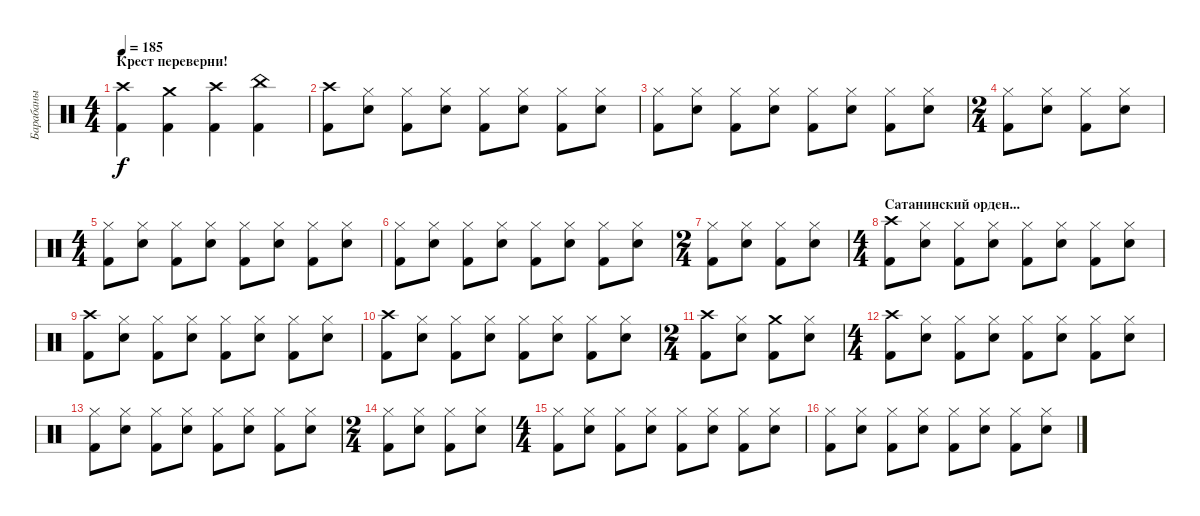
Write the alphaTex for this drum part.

\track ("Барабаны" "Барабаны") {instrument percussion}
\staff {score}
\articulation defaults
\ts (4 4)
\section ("" "Крест переверни!")
\tempo 185
\clef neutral
\ks c
("Crash high (hit)" "Kick (hit) 2").4{dy f} ("Crash medium (hit)" "Kick (hit) 2").4 ("Crash high (hit)" "Kick (hit) 2").4 ("China (hit)" "Kick (hit) 2").4 |
("Crash high (hit)" "Kick (hit) 2").8 ("Hi-Hat (closed)" "Snare (hit) 2").8 ("Hi-Hat (closed)" "Kick (hit) 2").8 ("Hi-Hat (closed)" "Snare (hit) 2").8 ("Hi-Hat (closed)" "Kick (hit) 2").8 ("Hi-Hat (closed)" "Snare (hit) 2").8 ("Hi-Hat (closed)" "Kick (hit) 2").8 ("Hi-Hat (closed)" "Snare (hit) 2").8 |
("Hi-Hat (closed)" "Kick (hit) 2").8 ("Hi-Hat (closed)" "Snare (hit) 2").8 ("Hi-Hat (closed)" "Kick (hit) 2").8 ("Hi-Hat (closed)" "Snare (hit) 2").8 ("Hi-Hat (closed)" "Kick (hit) 2").8 ("Hi-Hat (closed)" "Snare (hit) 2").8 ("Hi-Hat (closed)" "Kick (hit) 2").8 ("Hi-Hat (closed)" "Snare (hit) 2").8 |
\ts (2 4)
("Hi-Hat (closed)" "Kick (hit) 2").8 ("Hi-Hat (closed)" "Snare (hit) 2").8 ("Hi-Hat (closed)" "Kick (hit) 2").8 ("Hi-Hat (closed)" "Snare (hit) 2").8 |
\ts (4 4)
("Hi-Hat (closed)" "Kick (hit) 2").8 ("Hi-Hat (closed)" "Snare (hit) 2").8 ("Hi-Hat (closed)" "Kick (hit) 2").8 ("Hi-Hat (closed)" "Snare (hit) 2").8 ("Hi-Hat (closed)" "Kick (hit) 2").8 ("Hi-Hat (closed)" "Snare (hit) 2").8 ("Hi-Hat (closed)" "Kick (hit) 2").8 ("Hi-Hat (closed)" "Snare (hit) 2").8 |
("Hi-Hat (closed)" "Kick (hit) 2").8 ("Hi-Hat (closed)" "Snare (hit) 2").8 ("Hi-Hat (closed)" "Kick (hit) 2").8 ("Hi-Hat (closed)" "Snare (hit) 2").8 ("Hi-Hat (closed)" "Kick (hit) 2").8 ("Hi-Hat (closed)" "Snare (hit) 2").8 ("Hi-Hat (closed)" "Kick (hit) 2").8 ("Hi-Hat (closed)" "Snare (hit) 2").8 |
\ts (2 4)
("Hi-Hat (closed)" "Kick (hit) 2").8 ("Hi-Hat (closed)" "Snare (hit) 2").8 ("Hi-Hat (closed)" "Kick (hit) 2").8 ("Hi-Hat (closed)" "Snare (hit) 2").8 |
\ts (4 4)
\section ("" "Сатанинский орден...")
("Crash high (hit)" "Kick (hit) 2").8 ("Hi-Hat (closed)" "Snare (hit) 2").8 ("Hi-Hat (closed)" "Kick (hit) 2").8 ("Hi-Hat (closed)" "Snare (hit) 2").8 ("Hi-Hat (closed)" "Kick (hit) 2").8 ("Hi-Hat (closed)" "Snare (hit) 2").8 ("Hi-Hat (closed)" "Kick (hit) 2").8 ("Hi-Hat (closed)" "Snare (hit) 2").8 |
("Crash high (hit)" "Kick (hit) 2").8 ("Hi-Hat (closed)" "Snare (hit) 2").8 ("Hi-Hat (closed)" "Kick (hit) 2").8 ("Hi-Hat (closed)" "Snare (hit) 2").8 ("Hi-Hat (closed)" "Kick (hit) 2").8 ("Hi-Hat (closed)" "Snare (hit) 2").8 ("Hi-Hat (closed)" "Kick (hit) 2").8 ("Hi-Hat (closed)" "Snare (hit) 2").8 |
("Crash high (hit)" "Kick (hit) 2").8 ("Hi-Hat (closed)" "Snare (hit) 2").8 ("Hi-Hat (closed)" "Kick (hit) 2").8 ("Hi-Hat (closed)" "Snare (hit) 2").8 ("Hi-Hat (closed)" "Kick (hit) 2").8 ("Hi-Hat (closed)" "Snare (hit) 2").8 ("Hi-Hat (closed)" "Kick (hit) 2").8 ("Hi-Hat (closed)" "Snare (hit) 2").8 |
\ts (2 4)
("Crash high (hit)" "Kick (hit) 2").8 ("Hi-Hat (closed)" "Snare (hit) 2").8 ("Crash medium (hit)" "Kick (hit) 2").8 ("Hi-Hat (closed)" "Snare (hit) 2").8 |
\ts (4 4)
("Crash high (hit)" "Kick (hit) 2").8 ("Hi-Hat (closed)" "Snare (hit) 2").8 ("Hi-Hat (closed)" "Kick (hit) 2").8 ("Hi-Hat (closed)" "Snare (hit) 2").8 ("Hi-Hat (closed)" "Kick (hit) 2").8 ("Hi-Hat (closed)" "Snare (hit) 2").8 ("Hi-Hat (closed)" "Kick (hit) 2").8 ("Hi-Hat (closed)" "Snare (hit) 2").8 |
("Hi-Hat (closed)" "Kick (hit) 2").8 ("Hi-Hat (closed)" "Snare (hit) 2").8 ("Hi-Hat (closed)" "Kick (hit) 2").8 ("Hi-Hat (closed)" "Snare (hit) 2").8 ("Hi-Hat (closed)" "Kick (hit) 2").8 ("Hi-Hat (closed)" "Snare (hit) 2").8 ("Hi-Hat (closed)" "Kick (hit) 2").8 ("Hi-Hat (closed)" "Snare (hit) 2").8 |
\ts (2 4)
("Hi-Hat (closed)" "Kick (hit) 2").8 ("Hi-Hat (closed)" "Snare (hit) 2").8 ("Hi-Hat (closed)" "Kick (hit) 2").8 ("Hi-Hat (closed)" "Snare (hit) 2").8 |
\ts (4 4)
("Hi-Hat (closed)" "Kick (hit) 2").8 ("Hi-Hat (closed)" "Snare (hit) 2").8 ("Hi-Hat (closed)" "Kick (hit) 2").8 ("Hi-Hat (closed)" "Snare (hit) 2").8 ("Hi-Hat (closed)" "Kick (hit) 2").8 ("Hi-Hat (closed)" "Snare (hit) 2").8 ("Hi-Hat (closed)" "Kick (hit) 2").8 ("Hi-Hat (closed)" "Snare (hit) 2").8 |
("Hi-Hat (closed)" "Kick (hit) 2").8 ("Hi-Hat (closed)" "Snare (hit) 2").8 ("Hi-Hat (closed)" "Kick (hit) 2").8 ("Hi-Hat (closed)" "Snare (hit) 2").8 ("Hi-Hat (closed)" "Kick (hit) 2").8 ("Hi-Hat (closed)" "Snare (hit) 2").8 ("Hi-Hat (closed)" "Kick (hit) 2").8 ("Hi-Hat (closed)" "Snare (hit) 2").8
